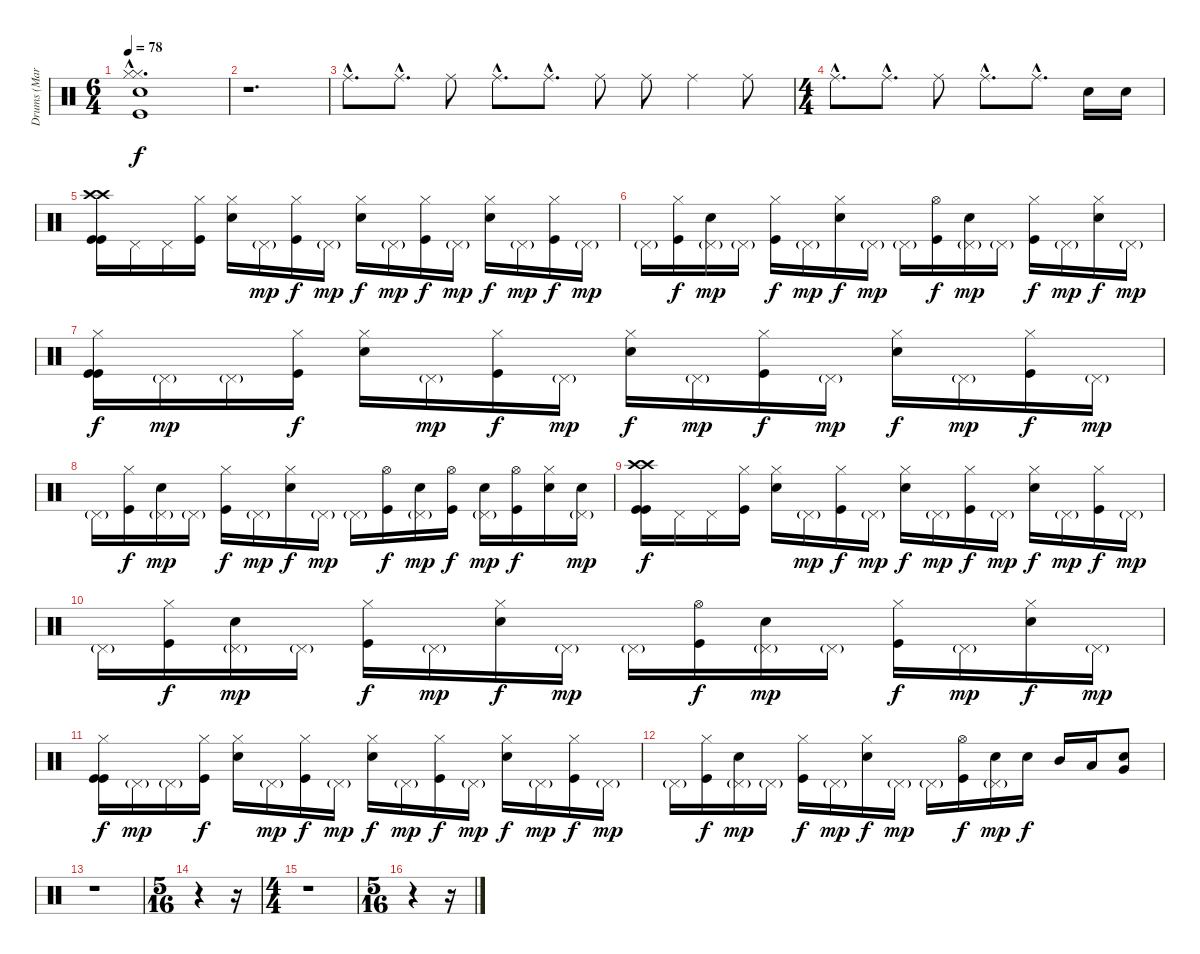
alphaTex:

\track ("Drums (Mark Zonder)" "Drums (Mar") {instrument percussion}
\staff {score}
\articulation defaults
\ts (6 4)
\tempo 78
\clef neutral
\ks c
("Hi-Hat (closed)"{hac} "Hi-Hat (closed)"{hac} "Kick (hit)"{hac} "Electric Snare (hit)"{hac}).1{d dy f} |
r.1{d} |
"Ride (middle)"{hac}.8{d} "Ride (middle)"{hac}.8{d} "Ride (middle)".8 "Ride (middle)"{hac}.8{d} "Ride (middle)"{hac}.8{d} "Ride (middle)".8 "Ride (middle)".8 "Ride (middle)".4 "Ride (middle)".8 |
\ts (4 4)
"Ride (middle)"{hac}.8{d} "Ride (middle)"{hac}.8{d} "Ride (middle)".8 "Ride (middle)"{hac}.8{d} "Ride (middle)"{hac}.8{d} "Electric Snare (hit)".16 "Electric Snare (hit)".16 |
("Crash high (hit)" "Crash high (hit)" "Kick (hit)" "Kick (hit)").16 "Pedal Hi-Hat (hit)".16 "Pedal Hi-Hat (hit)".16 ("Hi-Hat (closed)" "Kick (hit)").16 ("Hi-Hat (closed)" "Electric Snare (hit)").16 "Pedal Hi-Hat (hit)"{g}.16{dy mp} ("Hi-Hat (closed)" "Kick (hit)").16{dy f} "Pedal Hi-Hat (hit)"{g}.16{dy mp} ("Hi-Hat (closed)" "Electric Snare (hit)").16{dy f} "Pedal Hi-Hat (hit)"{g}.16{dy mp} ("Hi-Hat (closed)" "Kick (hit)").16{dy f} "Pedal Hi-Hat (hit)"{g}.16{dy mp} ("Hi-Hat (closed)" "Electric Snare (hit)").16{dy f} "Pedal Hi-Hat (hit)"{g}.16{dy mp} ("Hi-Hat (closed)" "Kick (hit)").16{dy f} "Pedal Hi-Hat (hit)"{g}.16{dy mp} |
"Pedal Hi-Hat (hit)"{g}.16 ("Hi-Hat (closed)" "Kick (hit)").16{dy f} ("Pedal Hi-Hat (hit)"{g} "Electric Snare (hit)").16{dy mp} "Pedal Hi-Hat (hit)"{g}.16 ("Hi-Hat (closed)" "Kick (hit)").16{dy f} "Pedal Hi-Hat (hit)"{g}.16{dy mp} ("Hi-Hat (closed)" "Electric Snare (hit)").16{dy f} "Pedal Hi-Hat (hit)"{g}.16{dy mp} "Pedal Hi-Hat (hit)"{g}.16 ("Hi-Hat (open)" "Kick (hit)").16{dy f} ("Pedal Hi-Hat (hit)"{g} "Electric Snare (hit)").16{dy mp} "Pedal Hi-Hat (hit)"{g}.16 ("Hi-Hat (closed)" "Kick (hit)").16{dy f} "Pedal Hi-Hat (hit)"{g}.16{dy mp} ("Hi-Hat (closed)" "Electric Snare (hit)").16{dy f} "Pedal Hi-Hat (hit)"{g}.16{dy mp} |
("Hi-Hat (closed)" "Kick (hit)" "Kick (hit)").16{dy f} "Pedal Hi-Hat (hit)"{g}.16{dy mp} "Pedal Hi-Hat (hit)"{g}.16 ("Hi-Hat (closed)" "Kick (hit)").16{dy f} ("Hi-Hat (closed)" "Electric Snare (hit)").16 "Pedal Hi-Hat (hit)"{g}.16{dy mp} ("Hi-Hat (closed)" "Kick (hit)").16{dy f} "Pedal Hi-Hat (hit)"{g}.16{dy mp} ("Hi-Hat (closed)" "Electric Snare (hit)").16{dy f} "Pedal Hi-Hat (hit)"{g}.16{dy mp} ("Hi-Hat (closed)" "Kick (hit)").16{dy f} "Pedal Hi-Hat (hit)"{g}.16{dy mp} ("Hi-Hat (closed)" "Electric Snare (hit)").16{dy f} "Pedal Hi-Hat (hit)"{g}.16{dy mp} ("Hi-Hat (closed)" "Kick (hit)").16{dy f} "Pedal Hi-Hat (hit)"{g}.16{dy mp} |
"Pedal Hi-Hat (hit)"{g}.16 ("Hi-Hat (closed)" "Kick (hit)").16{dy f} ("Pedal Hi-Hat (hit)"{g} "Electric Snare (hit)").16{dy mp} "Pedal Hi-Hat (hit)"{g}.16 ("Hi-Hat (closed)" "Kick (hit)").16{dy f} "Pedal Hi-Hat (hit)"{g}.16{dy mp} ("Hi-Hat (closed)" "Electric Snare (hit)").16{dy f} "Pedal Hi-Hat (hit)"{g}.16{dy mp} "Pedal Hi-Hat (hit)"{g}.16 ("Hi-Hat (open)" "Kick (hit)").16{dy f} ("Pedal Hi-Hat (hit)"{g} "Electric Snare (hit)").16{dy mp} ("Hi-Hat (open)" "Kick (hit)").16{dy f} ("Pedal Hi-Hat (hit)"{g} "Electric Snare (hit)").16{dy mp} ("Hi-Hat (open)" "Kick (hit)").16{dy f} ("Hi-Hat (closed)" "Electric Snare (hit)").16 ("Pedal Hi-Hat (hit)"{g} "Electric Snare (hit)").16{dy mp} |
("Crash high (hit)" "Crash high (hit)" "Kick (hit)" "Kick (hit)").16{dy f} "Pedal Hi-Hat (hit)".16 "Pedal Hi-Hat (hit)".16 ("Hi-Hat (closed)" "Kick (hit)").16 ("Hi-Hat (closed)" "Electric Snare (hit)").16 "Pedal Hi-Hat (hit)"{g}.16{dy mp} ("Hi-Hat (closed)" "Kick (hit)").16{dy f} "Pedal Hi-Hat (hit)"{g}.16{dy mp} ("Hi-Hat (closed)" "Electric Snare (hit)").16{dy f} "Pedal Hi-Hat (hit)"{g}.16{dy mp} ("Hi-Hat (closed)" "Kick (hit)").16{dy f} "Pedal Hi-Hat (hit)"{g}.16{dy mp} ("Hi-Hat (closed)" "Electric Snare (hit)").16{dy f} "Pedal Hi-Hat (hit)"{g}.16{dy mp} ("Hi-Hat (closed)" "Kick (hit)").16{dy f} "Pedal Hi-Hat (hit)"{g}.16{dy mp} |
"Pedal Hi-Hat (hit)"{g}.16 ("Hi-Hat (closed)" "Kick (hit)").16{dy f} ("Pedal Hi-Hat (hit)"{g} "Electric Snare (hit)").16{dy mp} "Pedal Hi-Hat (hit)"{g}.16 ("Hi-Hat (closed)" "Kick (hit)").16{dy f} "Pedal Hi-Hat (hit)"{g}.16{dy mp} ("Hi-Hat (closed)" "Electric Snare (hit)").16{dy f} "Pedal Hi-Hat (hit)"{g}.16{dy mp} "Pedal Hi-Hat (hit)"{g}.16 ("Hi-Hat (open)" "Kick (hit)").16{dy f} ("Pedal Hi-Hat (hit)"{g} "Electric Snare (hit)").16{dy mp} "Pedal Hi-Hat (hit)"{g}.16 ("Hi-Hat (closed)" "Kick (hit)").16{dy f} "Pedal Hi-Hat (hit)"{g}.16{dy mp} ("Hi-Hat (closed)" "Electric Snare (hit)").16{dy f} "Pedal Hi-Hat (hit)"{g}.16{dy mp} |
("Hi-Hat (closed)" "Kick (hit)" "Kick (hit)").16{dy f} "Pedal Hi-Hat (hit)"{g}.16{dy mp} "Pedal Hi-Hat (hit)"{g}.16 ("Hi-Hat (closed)" "Kick (hit)").16{dy f} ("Hi-Hat (closed)" "Electric Snare (hit)").16 "Pedal Hi-Hat (hit)"{g}.16{dy mp} ("Hi-Hat (closed)" "Kick (hit)").16{dy f} "Pedal Hi-Hat (hit)"{g}.16{dy mp} ("Hi-Hat (closed)" "Electric Snare (hit)").16{dy f} "Pedal Hi-Hat (hit)"{g}.16{dy mp} ("Hi-Hat (closed)" "Kick (hit)").16{dy f} "Pedal Hi-Hat (hit)"{g}.16{dy mp} ("Hi-Hat (closed)" "Electric Snare (hit)").16{dy f} "Pedal Hi-Hat (hit)"{g}.16{dy mp} ("Hi-Hat (closed)" "Kick (hit)").16{dy f} "Pedal Hi-Hat (hit)"{g}.16{dy mp} |
"Pedal Hi-Hat (hit)"{g}.16 ("Hi-Hat (closed)" "Kick (hit)").16{dy f} ("Pedal Hi-Hat (hit)"{g} "Electric Snare (hit)").16{dy mp} "Pedal Hi-Hat (hit)"{g}.16 ("Hi-Hat (closed)" "Kick (hit)").16{dy f} "Pedal Hi-Hat (hit)"{g}.16{dy mp} ("Hi-Hat (closed)" "Electric Snare (hit)").16{dy f} "Pedal Hi-Hat (hit)"{g}.16{dy mp} "Pedal Hi-Hat (hit)"{g}.16 ("Hi-Hat (open)" "Kick (hit)").16{dy f} ("Pedal Hi-Hat (hit)"{g} "Electric Snare (hit)").16{dy mp} "Electric Snare (hit)".16{dy f} "Mid Tom (hit)".16 "Low Tom (hit)".16 ("Very Low Tom (hit)" "Electric Snare (hit)").8 |
r.1 |
\ts (5 16)
r.4 r.16 |
\ts (4 4)
r.1 |
\ts (5 16)
r.4 r.16
